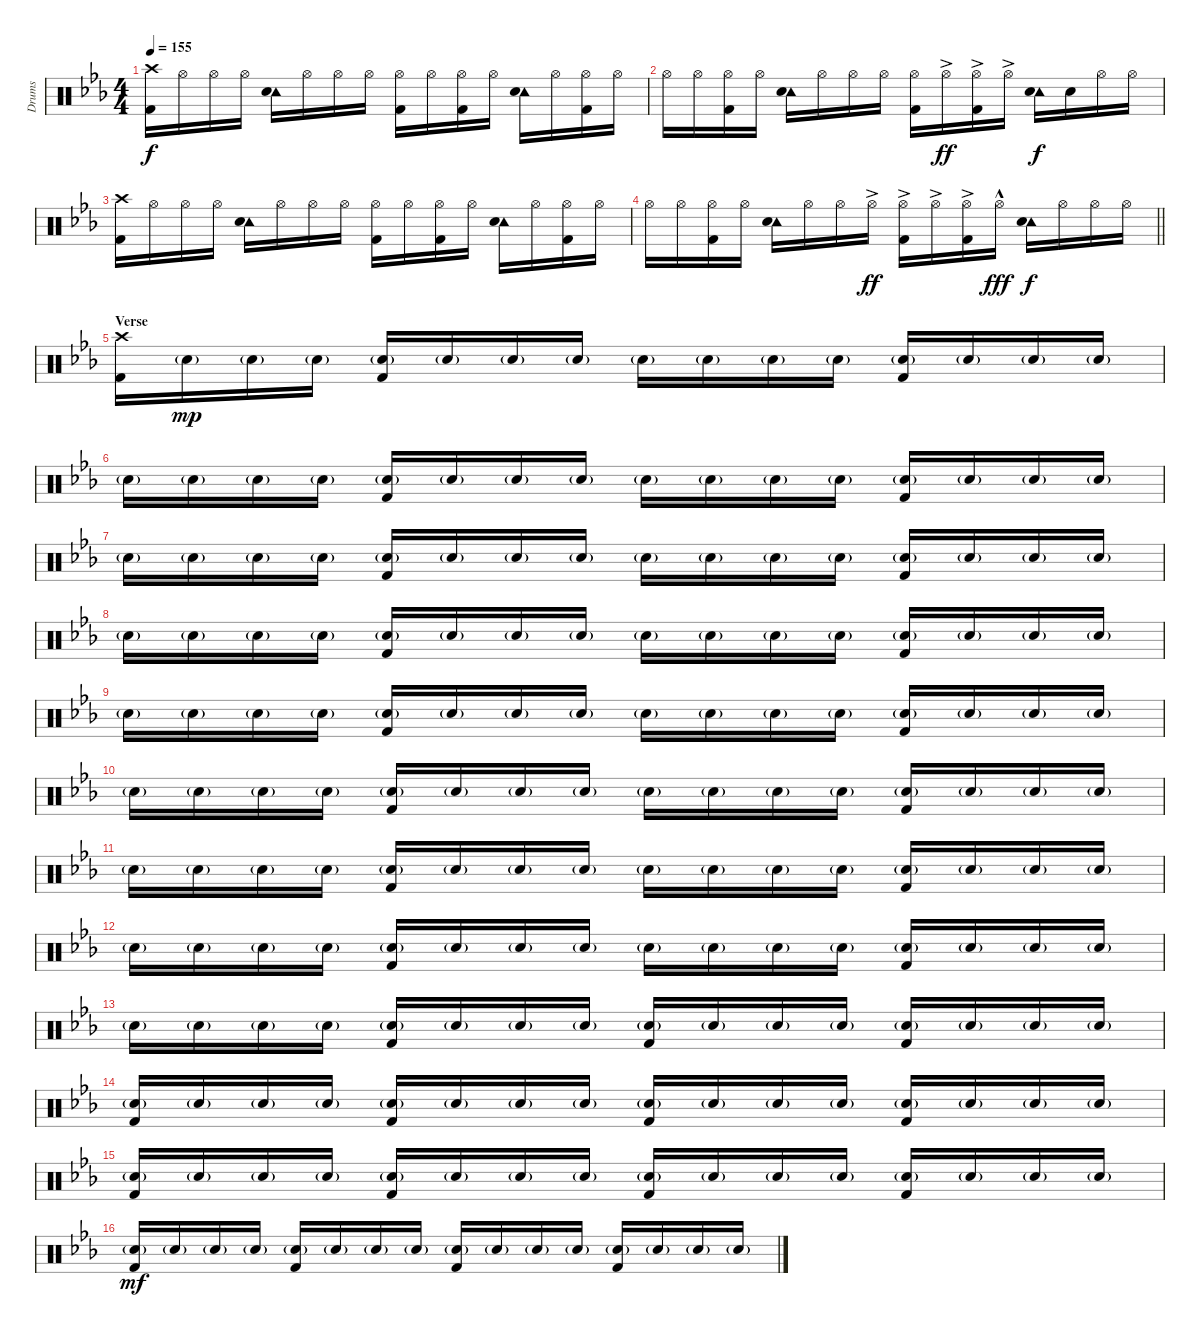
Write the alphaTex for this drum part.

\track ("Drums" "Drums") {instrument percussion}
\staff {score}
\articulation defaults
\ts (4 4)
\tempo 155
\clef neutral
\ks eb
("Crash high (hit)" "Kick (hit) 2").16{dy f} "Hi-Hat (open)".16 "Hi-Hat (open)".16 "Hi-Hat (open)".16 ("Tambourine (hit)" "Snare (hit) 2").16 "Hi-Hat (open)".16 "Hi-Hat (open)".16 "Hi-Hat (open)".16 ("Hi-Hat (open)" "Kick (hit) 2").16 "Hi-Hat (open)".16 ("Hi-Hat (open)" "Kick (hit) 2").16 "Hi-Hat (open)".16 ("Tambourine (hit)" "Snare (hit) 2").16 "Hi-Hat (open)".16 ("Hi-Hat (open)" "Kick (hit) 2").16 "Hi-Hat (open)".16 |
"Hi-Hat (open)".16 "Hi-Hat (open)".16 ("Hi-Hat (open)" "Kick (hit) 2").16 "Hi-Hat (open)".16 ("Tambourine (hit)" "Snare (hit) 2").16 "Hi-Hat (open)".16 "Hi-Hat (open)".16 "Hi-Hat (open)".16 ("Hi-Hat (open)" "Kick (hit) 2").16 "Hi-Hat (open)"{ac}.16{dy ff} ("Hi-Hat (open)"{ac} "Kick (hit) 2").16 "Hi-Hat (open)"{ac}.16 ("Tambourine (hit)" "Snare (hit) 2").16{dy f} "Snare (hit) 2".16 "Hi-Hat (open)".16 "Hi-Hat (open)".16 |
("Crash high (hit)" "Kick (hit) 2").16 "Hi-Hat (open)".16 "Hi-Hat (open)".16 "Hi-Hat (open)".16 ("Tambourine (hit)" "Snare (hit) 2").16 "Hi-Hat (open)".16 "Hi-Hat (open)".16 "Hi-Hat (open)".16 ("Hi-Hat (open)" "Kick (hit) 2").16 "Hi-Hat (open)".16 ("Hi-Hat (open)" "Kick (hit) 2").16 "Hi-Hat (open)".16 ("Tambourine (hit)" "Snare (hit) 2").16 "Hi-Hat (open)".16 ("Hi-Hat (open)" "Kick (hit) 2").16 "Hi-Hat (open)".16 |
\barLineRight lightlight "Hi-Hat (open)".16 "Hi-Hat (open)".16
("Hi-Hat (open)" "Kick (hit) 2").16 "Hi-Hat (open)".16 ("Tambourine (hit)" "Snare (hit) 2").16 "Hi-Hat (open)".16 "Hi-Hat (open)".16 "Hi-Hat (open)"{ac}.16{dy ff} ("Hi-Hat (open)"{ac} "Kick (hit) 2").16 "Hi-Hat (open)"{ac}.16 ("Hi-Hat (open)"{ac} "Kick (hit) 2").16 "Hi-Hat (open)"{hac}.16{dy fff} ("Tambourine (hit)" "Snare (hit) 2").16{dy f} "Hi-Hat (open)".16 "Hi-Hat (open)".16 "Hi-Hat (open)".16 |
\section ("" "Verse")
("Crash high (hit)" "Kick (hit) 2").16 "Snare (hit) 2"{g}.16{dy mp} "Snare (hit) 2"{g}.16 "Snare (hit) 2"{g}.16 ("Snare (hit) 2"{g} "Kick (hit) 2").16 "Snare (hit) 2"{g}.16 "Snare (hit) 2"{g}.16 "Snare (hit) 2"{g}.16 "Snare (hit) 2"{g}.16 "Snare (hit) 2"{g}.16 "Snare (hit) 2"{g}.16 "Snare (hit) 2"{g}.16 ("Snare (hit) 2"{g} "Kick (hit) 2").16 "Snare (hit) 2"{g}.16 "Snare (hit) 2"{g}.16 "Snare (hit) 2"{g}.16 |
"Snare (hit) 2"{g}.16 "Snare (hit) 2"{g}.16 "Snare (hit) 2"{g}.16 "Snare (hit) 2"{g}.16 ("Snare (hit) 2"{g} "Kick (hit) 2").16 "Snare (hit) 2"{g}.16 "Snare (hit) 2"{g}.16 "Snare (hit) 2"{g}.16 "Snare (hit) 2"{g}.16 "Snare (hit) 2"{g}.16 "Snare (hit) 2"{g}.16 "Snare (hit) 2"{g}.16 ("Snare (hit) 2"{g} "Kick (hit) 2").16 "Snare (hit) 2"{g}.16 "Snare (hit) 2"{g}.16 "Snare (hit) 2"{g}.16 |
"Snare (hit) 2"{g}.16 "Snare (hit) 2"{g}.16 "Snare (hit) 2"{g}.16 "Snare (hit) 2"{g}.16 ("Snare (hit) 2"{g} "Kick (hit) 2").16 "Snare (hit) 2"{g}.16 "Snare (hit) 2"{g}.16 "Snare (hit) 2"{g}.16 "Snare (hit) 2"{g}.16 "Snare (hit) 2"{g}.16 "Snare (hit) 2"{g}.16 "Snare (hit) 2"{g}.16 ("Snare (hit) 2"{g} "Kick (hit) 2").16 "Snare (hit) 2"{g}.16 "Snare (hit) 2"{g}.16 "Snare (hit) 2"{g}.16 |
"Snare (hit) 2"{g}.16 "Snare (hit) 2"{g}.16 "Snare (hit) 2"{g}.16 "Snare (hit) 2"{g}.16 ("Snare (hit) 2"{g} "Kick (hit) 2").16 "Snare (hit) 2"{g}.16 "Snare (hit) 2"{g}.16 "Snare (hit) 2"{g}.16 "Snare (hit) 2"{g}.16 "Snare (hit) 2"{g}.16 "Snare (hit) 2"{g}.16 "Snare (hit) 2"{g}.16 ("Snare (hit) 2"{g} "Kick (hit) 2").16 "Snare (hit) 2"{g}.16 "Snare (hit) 2"{g}.16 "Snare (hit) 2"{g}.16 |
"Snare (hit) 2"{g}.16 "Snare (hit) 2"{g}.16 "Snare (hit) 2"{g}.16 "Snare (hit) 2"{g}.16 ("Snare (hit) 2"{g} "Kick (hit) 2").16 "Snare (hit) 2"{g}.16 "Snare (hit) 2"{g}.16 "Snare (hit) 2"{g}.16 "Snare (hit) 2"{g}.16 "Snare (hit) 2"{g}.16 "Snare (hit) 2"{g}.16 "Snare (hit) 2"{g}.16 ("Snare (hit) 2"{g} "Kick (hit) 2").16 "Snare (hit) 2"{g}.16 "Snare (hit) 2"{g}.16 "Snare (hit) 2"{g}.16 |
"Snare (hit) 2"{g}.16 "Snare (hit) 2"{g}.16 "Snare (hit) 2"{g}.16 "Snare (hit) 2"{g}.16 ("Snare (hit) 2"{g} "Kick (hit) 2").16 "Snare (hit) 2"{g}.16 "Snare (hit) 2"{g}.16 "Snare (hit) 2"{g}.16 "Snare (hit) 2"{g}.16 "Snare (hit) 2"{g}.16 "Snare (hit) 2"{g}.16 "Snare (hit) 2"{g}.16 ("Snare (hit) 2"{g} "Kick (hit) 2").16 "Snare (hit) 2"{g}.16 "Snare (hit) 2"{g}.16 "Snare (hit) 2"{g}.16 |
"Snare (hit) 2"{g}.16 "Snare (hit) 2"{g}.16 "Snare (hit) 2"{g}.16 "Snare (hit) 2"{g}.16 ("Snare (hit) 2"{g} "Kick (hit) 2").16 "Snare (hit) 2"{g}.16 "Snare (hit) 2"{g}.16 "Snare (hit) 2"{g}.16 "Snare (hit) 2"{g}.16 "Snare (hit) 2"{g}.16 "Snare (hit) 2"{g}.16 "Snare (hit) 2"{g}.16 ("Snare (hit) 2"{g} "Kick (hit) 2").16 "Snare (hit) 2"{g}.16 "Snare (hit) 2"{g}.16 "Snare (hit) 2"{g}.16 |
"Snare (hit) 2"{g}.16 "Snare (hit) 2"{g}.16 "Snare (hit) 2"{g}.16 "Snare (hit) 2"{g}.16 ("Snare (hit) 2"{g} "Kick (hit) 2").16 "Snare (hit) 2"{g}.16 "Snare (hit) 2"{g}.16 "Snare (hit) 2"{g}.16 "Snare (hit) 2"{g}.16 "Snare (hit) 2"{g}.16 "Snare (hit) 2"{g}.16 "Snare (hit) 2"{g}.16 ("Snare (hit) 2"{g} "Kick (hit) 2").16 "Snare (hit) 2"{g}.16 "Snare (hit) 2"{g}.16 "Snare (hit) 2"{g}.16 |
"Snare (hit) 2"{g}.16 "Snare (hit) 2"{g}.16 "Snare (hit) 2"{g}.16 "Snare (hit) 2"{g}.16 ("Snare (hit) 2"{g} "Kick (hit) 2").16 "Snare (hit) 2"{g}.16 "Snare (hit) 2"{g}.16 "Snare (hit) 2"{g}.16 ("Snare (hit) 2"{g} "Kick (hit) 2").16 "Snare (hit) 2"{g}.16 "Snare (hit) 2"{g}.16 "Snare (hit) 2"{g}.16 ("Snare (hit) 2"{g} "Kick (hit) 2").16 "Snare (hit) 2"{g}.16 "Snare (hit) 2"{g}.16 "Snare (hit) 2"{g}.16 |
("Snare (hit) 2"{g} "Kick (hit) 2").16 "Snare (hit) 2"{g}.16 "Snare (hit) 2"{g}.16 "Snare (hit) 2"{g}.16 ("Snare (hit) 2"{g} "Kick (hit) 2").16 "Snare (hit) 2"{g}.16 "Snare (hit) 2"{g}.16 "Snare (hit) 2"{g}.16 ("Snare (hit) 2"{g} "Kick (hit) 2").16 "Snare (hit) 2"{g}.16 "Snare (hit) 2"{g}.16 "Snare (hit) 2"{g}.16 ("Snare (hit) 2"{g} "Kick (hit) 2").16 "Snare (hit) 2"{g}.16 "Snare (hit) 2"{g}.16 "Snare (hit) 2"{g}.16 |
("Snare (hit) 2"{g} "Kick (hit) 2").16 "Snare (hit) 2"{g}.16 "Snare (hit) 2"{g}.16 "Snare (hit) 2"{g}.16 ("Snare (hit) 2"{g} "Kick (hit) 2").16 "Snare (hit) 2"{g}.16 "Snare (hit) 2"{g}.16 "Snare (hit) 2"{g}.16 ("Snare (hit) 2"{g} "Kick (hit) 2").16 "Snare (hit) 2"{g}.16 "Snare (hit) 2"{g}.16 "Snare (hit) 2"{g}.16 ("Snare (hit) 2"{g} "Kick (hit) 2").16 "Snare (hit) 2"{g}.16 "Snare (hit) 2"{g}.16 "Snare (hit) 2"{g}.16 |
("Snare (hit) 2"{g} "Kick (hit) 2").16{dy mf} "Snare (hit) 2"{g}.16 "Snare (hit) 2"{g}.16 "Snare (hit) 2"{g}.16 ("Snare (hit) 2"{g} "Kick (hit) 2").16 "Snare (hit) 2"{g}.16 "Snare (hit) 2"{g}.16 "Snare (hit) 2"{g}.16 ("Snare (hit) 2"{g} "Kick (hit) 2").16 "Snare (hit) 2"{g}.16 "Snare (hit) 2"{g}.16 "Snare (hit) 2"{g}.16 ("Snare (hit) 2"{g} "Kick (hit) 2").16 "Snare (hit) 2"{g}.16 "Snare (hit) 2"{g}.16 "Snare (hit) 2"{g}.16
